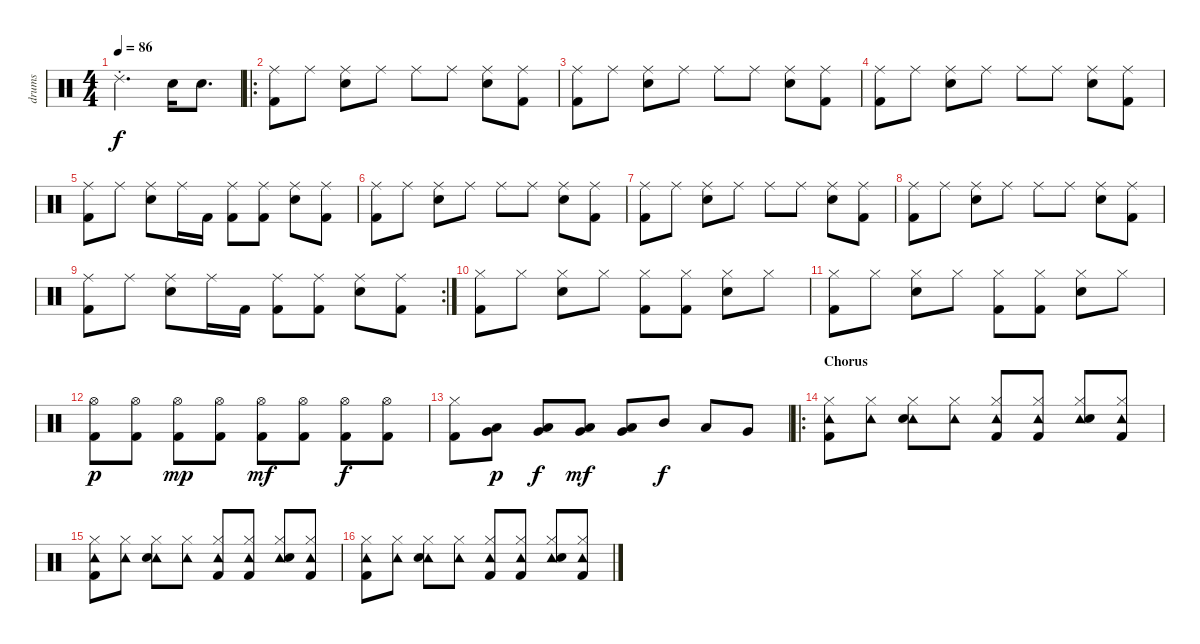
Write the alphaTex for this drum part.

\track ("drums" "drums") {instrument percussion}
\staff {score}
\articulation defaults
\ts (4 4)
\tempo 86
\clef neutral
\ks c "Ride (choke) 2".2{d dy f} "Electric Snare (hit)".16 "Electric Snare (hit)".8{d}
|
\ro
("Ride (middle)" "Kick (hit) 2").8 "Ride (middle)".8 ("Ride (middle)" "Electric Snare (hit)").8 "Ride (middle)".8 "Ride (middle)".8 "Ride (middle)".8 ("Ride (middle)" "Electric Snare (hit)").8 ("Ride (middle)" "Kick (hit) 2").8 |
("Ride (middle)" "Kick (hit) 2").8 "Ride (middle)".8 ("Ride (middle)" "Electric Snare (hit)").8 "Ride (middle)".8 "Ride (middle)".8 "Ride (middle)".8 ("Ride (middle)" "Electric Snare (hit)").8 ("Ride (middle)" "Kick (hit) 2").8 |
("Ride (middle)" "Kick (hit) 2").8 "Ride (middle)".8 ("Ride (middle)" "Electric Snare (hit)").8 "Ride (middle)".8 "Ride (middle)".8 "Ride (middle)".8 ("Ride (middle)" "Electric Snare (hit)").8 ("Ride (middle)" "Kick (hit) 2").8 |
("Ride (middle)" "Kick (hit) 2").8 "Ride (middle)".8 ("Ride (middle)" "Electric Snare (hit)").8 "Ride (middle)".16 "Kick (hit) 2".16 ("Ride (middle)" "Kick (hit) 2").8 ("Ride (middle)" "Kick (hit) 2").8 ("Ride (middle)" "Electric Snare (hit)").8 ("Ride (middle)" "Kick (hit) 2").8 |
("Ride (middle)" "Kick (hit) 2").8 "Ride (middle)".8 ("Ride (middle)" "Electric Snare (hit)").8 "Ride (middle)".8 "Ride (middle)".8 "Ride (middle)".8 ("Ride (middle)" "Electric Snare (hit)").8 ("Ride (middle)" "Kick (hit) 2").8 |
("Ride (middle)" "Kick (hit) 2").8 "Ride (middle)".8 ("Ride (middle)" "Electric Snare (hit)").8 "Ride (middle)".8 "Ride (middle)".8 "Ride (middle)".8 ("Ride (middle)" "Electric Snare (hit)").8 ("Ride (middle)" "Kick (hit) 2").8 |
("Ride (middle)" "Kick (hit) 2").8 "Ride (middle)".8 ("Ride (middle)" "Electric Snare (hit)").8 "Ride (middle)".8 "Ride (middle)".8 "Ride (middle)".8 ("Ride (middle)" "Electric Snare (hit)").8 ("Ride (middle)" "Kick (hit) 2").8 |
\rc 2
("Ride (middle)" "Kick (hit) 2").8 "Ride (middle)".8 ("Ride (middle)" "Electric Snare (hit)").8 "Ride (middle)".16 "Kick (hit) 2".16 ("Ride (middle)" "Kick (hit) 2").8 ("Ride (middle)" "Kick (hit) 2").8 ("Ride (middle)" "Electric Snare (hit)").8 ("Ride (middle)" "Kick (hit) 2").8 |
("Hi-Hat (closed)" "Kick (hit) 2").8 "Hi-Hat (closed)".8 ("Hi-Hat (closed)" "Electric Snare (hit)").8 "Hi-Hat (closed)".8 ("Hi-Hat (closed)" "Kick (hit) 2").8 ("Hi-Hat (closed)" "Kick (hit) 2").8 ("Hi-Hat (closed)" "Electric Snare (hit)").8 "Hi-Hat (closed)".8 |
("Hi-Hat (closed)" "Kick (hit) 2").8 "Hi-Hat (closed)".8 ("Hi-Hat (closed)" "Electric Snare (hit)").8 "Hi-Hat (closed)".8 ("Hi-Hat (closed)" "Kick (hit) 2").8 ("Hi-Hat (closed)" "Kick (hit) 2").8 ("Hi-Hat (closed)" "Electric Snare (hit)").8 "Hi-Hat (closed)".8 |
("Hi-Hat (open)" "Kick (hit) 2").8{dy p} ("Hi-Hat (open)" "Kick (hit) 2").8 ("Hi-Hat (open)" "Kick (hit) 2").8{dy mp} ("Hi-Hat (open)" "Kick (hit) 2").8 ("Hi-Hat (open)" "Kick (hit) 2").8{dy mf} ("Hi-Hat (open)" "Kick (hit) 2").8 ("Hi-Hat (open)" "Kick (hit) 2").8{dy f} ("Hi-Hat (open)" "Kick (hit) 2").8 |
("Hi-Hat (closed)" "Kick (hit) 2").8 ("Low Tom (hit)" "Very Low Tom (hit)").8{dy p} ("Low Tom (hit)" "Very Low Tom (hit)").8{dy f} ("Low Tom (hit)" "Very Low Tom (hit)").8{dy mf} ("Low Tom (hit)" "Very Low Tom (hit)").8 "Mid Tom (hit)".8{dy f} "Low Tom (hit)".8 "Very Low Tom (hit)".8 |
\ro
\section ("" "Chorus")
("Hi-Hat (closed)" "Tambourine (hit)" "Kick (hit) 2").8 ("Hi-Hat (closed)" "Tambourine (hit)").8 ("Hi-Hat (closed)" "Tambourine (hit)" "Electric Snare (hit)").8 ("Hi-Hat (closed)" "Tambourine (hit)").8 ("Hi-Hat (closed)" "Tambourine (hit)" "Kick (hit) 2").8 ("Hi-Hat (closed)" "Tambourine (hit)" "Kick (hit) 2").8 ("Hi-Hat (closed)" "Tambourine (hit)" "Electric Snare (hit)").8 ("Hi-Hat (closed)" "Tambourine (hit)" "Kick (hit) 2").8 |
("Hi-Hat (closed)" "Tambourine (hit)" "Kick (hit) 2").8 ("Hi-Hat (closed)" "Tambourine (hit)").8 ("Hi-Hat (closed)" "Tambourine (hit)" "Electric Snare (hit)").8 ("Hi-Hat (closed)" "Tambourine (hit)").8 ("Hi-Hat (closed)" "Tambourine (hit)" "Kick (hit) 2").8 ("Hi-Hat (closed)" "Tambourine (hit)" "Kick (hit) 2").8 ("Hi-Hat (closed)" "Tambourine (hit)" "Electric Snare (hit)").8 ("Hi-Hat (closed)" "Tambourine (hit)" "Kick (hit) 2").8 |
("Hi-Hat (closed)" "Tambourine (hit)" "Kick (hit) 2").8 ("Hi-Hat (closed)" "Tambourine (hit)").8 ("Hi-Hat (closed)" "Tambourine (hit)" "Electric Snare (hit)").8 ("Hi-Hat (closed)" "Tambourine (hit)").8 ("Hi-Hat (closed)" "Tambourine (hit)" "Kick (hit) 2").8 ("Hi-Hat (closed)" "Tambourine (hit)" "Kick (hit) 2").8 ("Hi-Hat (closed)" "Tambourine (hit)" "Electric Snare (hit)").8 ("Hi-Hat (closed)" "Tambourine (hit)" "Kick (hit) 2").8
